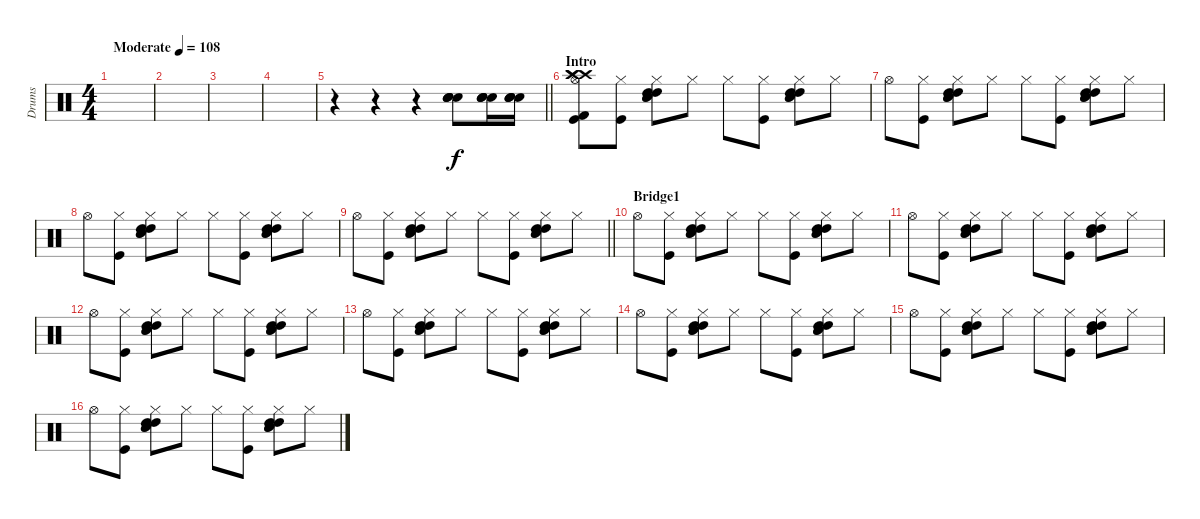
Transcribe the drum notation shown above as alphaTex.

\track ("Drums" "Drums") {instrument percussion}
\staff {score}
\articulation defaults
\ts (4 4)
\tempo (108 "Moderate")
\clef neutral
\ks c
|
|
|
|
\barLineRight lightlight
r.4 r.4 r.4 ("Snare (hit) 2" "Snare (hit) 2" "Snare (hit) 2" "Snare (hit) 2").8{volume 16} ("Snare (hit) 2" "Snare (hit) 2" "Snare (hit) 2" "Snare (hit) 2").16 ("Snare (hit) 2" "Snare (hit) 2" "Snare (hit) 2" "Snare (hit) 2").16 |
\section ("" "Intro")
("Crash high (hit)" "Crash high (hit)" "Crash high (hit)" "Kick (hit)" "Kick (hit) 2" "Hi-Hat (open)").8 ("Kick (hit)" "Hi-Hat (closed)").8 ("Snare (hit) 2" "Snare (hit) 2" "High Tom (hit)" "High Tom (hit)" "Hi-Hat (closed)").8 "Hi-Hat (closed)".8 "Hi-Hat (closed)".8 ("Kick (hit)" "Hi-Hat (closed)").8 ("Snare (hit) 2" "Snare (hit) 2" "High Tom (hit)" "High Tom (hit)" "Hi-Hat (closed)").8 "Hi-Hat (closed)".8 |
"Hi-Hat (open)".8 ("Kick (hit)" "Hi-Hat (closed)").8 ("Snare (hit) 2" "Snare (hit) 2" "High Tom (hit)" "High Tom (hit)" "Hi-Hat (closed)").8 "Hi-Hat (closed)".8 "Hi-Hat (closed)".8 ("Kick (hit)" "Hi-Hat (closed)").8 ("Snare (hit) 2" "Snare (hit) 2" "High Tom (hit)" "High Tom (hit)" "Hi-Hat (closed)").8 "Hi-Hat (closed)".8 |
"Hi-Hat (open)".8 ("Kick (hit)" "Hi-Hat (closed)").8 ("Snare (hit) 2" "Snare (hit) 2" "High Tom (hit)" "High Tom (hit)" "Hi-Hat (closed)").8 "Hi-Hat (closed)".8 "Hi-Hat (closed)".8 ("Kick (hit)" "Hi-Hat (closed)").8 ("Snare (hit) 2" "Snare (hit) 2" "High Tom (hit)" "High Tom (hit)" "Hi-Hat (closed)").8 "Hi-Hat (closed)".8 |
\barLineRight lightlight "Hi-Hat (open)".8
("Kick (hit)" "Hi-Hat (closed)").8 ("Snare (hit) 2" "Snare (hit) 2" "High Tom (hit)" "High Tom (hit)" "Hi-Hat (closed)").8 "Hi-Hat (closed)".8 "Hi-Hat (closed)".8 ("Kick (hit)" "Hi-Hat (closed)").8 ("Snare (hit) 2" "Snare (hit) 2" "High Tom (hit)" "High Tom (hit)" "Hi-Hat (closed)").8 "Hi-Hat (closed)".8 |
\section ("" "Bridge1")
"Hi-Hat (open)".8 ("Kick (hit)" "Hi-Hat (closed)").8 ("Snare (hit) 2" "Snare (hit) 2" "High Tom (hit)" "High Tom (hit)" "Hi-Hat (closed)").8 "Hi-Hat (closed)".8 "Hi-Hat (closed)".8 ("Kick (hit)" "Hi-Hat (closed)").8 ("Snare (hit) 2" "Snare (hit) 2" "High Tom (hit)" "High Tom (hit)" "Hi-Hat (closed)").8 "Hi-Hat (closed)".8 |
"Hi-Hat (open)".8 ("Kick (hit)" "Hi-Hat (closed)").8 ("Snare (hit) 2" "Snare (hit) 2" "High Tom (hit)" "High Tom (hit)" "Hi-Hat (closed)").8 "Hi-Hat (closed)".8 "Hi-Hat (closed)".8 ("Kick (hit)" "Hi-Hat (closed)").8 ("Snare (hit) 2" "Snare (hit) 2" "High Tom (hit)" "High Tom (hit)" "Hi-Hat (closed)").8 "Hi-Hat (closed)".8 |
"Hi-Hat (open)".8 ("Kick (hit)" "Hi-Hat (closed)").8 ("Snare (hit) 2" "Snare (hit) 2" "High Tom (hit)" "High Tom (hit)" "Hi-Hat (closed)").8 "Hi-Hat (closed)".8 "Hi-Hat (closed)".8 ("Kick (hit)" "Hi-Hat (closed)").8 ("Snare (hit) 2" "Snare (hit) 2" "High Tom (hit)" "High Tom (hit)" "Hi-Hat (closed)").8 "Hi-Hat (closed)".8 |
"Hi-Hat (open)".8 ("Kick (hit)" "Hi-Hat (closed)").8 ("Snare (hit) 2" "Snare (hit) 2" "High Tom (hit)" "High Tom (hit)" "Hi-Hat (closed)").8 "Hi-Hat (closed)".8 "Hi-Hat (closed)".8 ("Kick (hit)" "Hi-Hat (closed)").8 ("Snare (hit) 2" "Snare (hit) 2" "High Tom (hit)" "High Tom (hit)" "Hi-Hat (closed)").8 "Hi-Hat (closed)".8 |
"Hi-Hat (open)".8 ("Kick (hit)" "Hi-Hat (closed)").8 ("Snare (hit) 2" "Snare (hit) 2" "High Tom (hit)" "High Tom (hit)" "Hi-Hat (closed)").8 "Hi-Hat (closed)".8 "Hi-Hat (closed)".8 ("Kick (hit)" "Hi-Hat (closed)").8 ("Snare (hit) 2" "Snare (hit) 2" "High Tom (hit)" "High Tom (hit)" "Hi-Hat (closed)").8 "Hi-Hat (closed)".8 |
"Hi-Hat (open)".8 ("Kick (hit)" "Hi-Hat (closed)").8 ("Snare (hit) 2" "Snare (hit) 2" "High Tom (hit)" "High Tom (hit)" "Hi-Hat (closed)").8 "Hi-Hat (closed)".8 "Hi-Hat (closed)".8 ("Kick (hit)" "Hi-Hat (closed)").8 ("Snare (hit) 2" "Snare (hit) 2" "High Tom (hit)" "High Tom (hit)" "Hi-Hat (closed)").8 "Hi-Hat (closed)".8 |
"Hi-Hat (open)".8 ("Kick (hit)" "Hi-Hat (closed)").8 ("Snare (hit) 2" "Snare (hit) 2" "High Tom (hit)" "High Tom (hit)" "Hi-Hat (closed)").8 "Hi-Hat (closed)".8 "Hi-Hat (closed)".8 ("Kick (hit)" "Hi-Hat (closed)").8 ("Snare (hit) 2" "Snare (hit) 2" "High Tom (hit)" "High Tom (hit)" "Hi-Hat (closed)").8 "Hi-Hat (closed)".8
